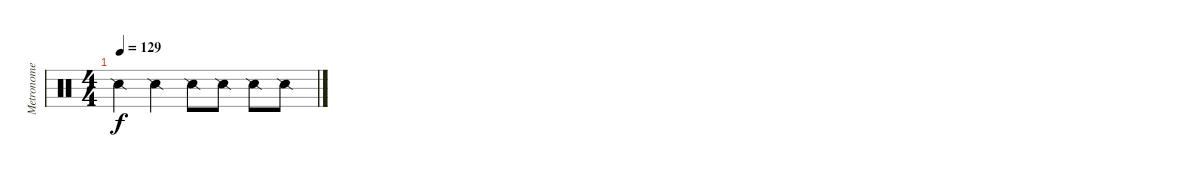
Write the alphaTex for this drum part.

\track ("Metronome" "Metronome") {instrument percussion}
\staff {score}
\articulation defaults
\ts (4 4)
\tempo 129
\clef neutral
\ks c "Snare (side stick) 2".4{dy f} "Snare (side stick) 2".4 "Snare (side stick) 2".8 "Snare (side stick) 2".8 "Snare (side stick) 2".8 "Snare (side stick) 2".8
